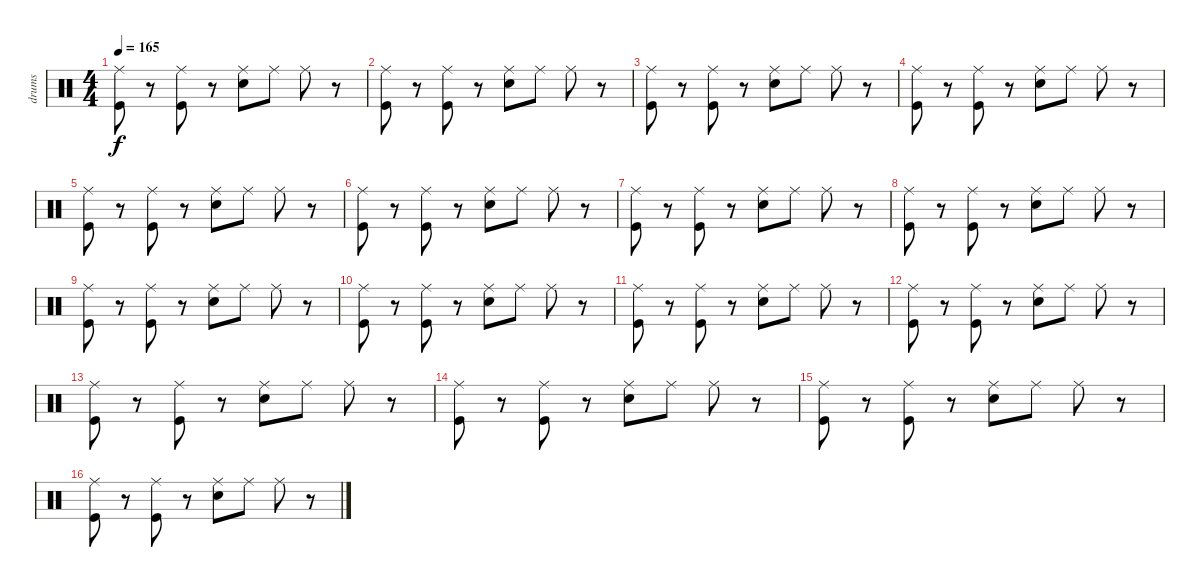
\track ("drums" "drums") {instrument percussion}
\staff {score}
\articulation defaults
\ts (4 4)
\tempo 165
\clef neutral
\ks c
("Kick (hit)" "Ride (middle)").8{dy f} r.8 ("Kick (hit)" "Ride (middle)").8 r.8 ("Snare (hit) 2" "Ride (middle)").8 "Ride (middle)".8 "Ride (middle)".8 r.8 |
("Kick (hit)" "Ride (middle)").8 r.8 ("Kick (hit)" "Ride (middle)").8 r.8 ("Snare (hit) 2" "Ride (middle)").8 "Ride (middle)".8 "Ride (middle)".8 r.8 |
("Kick (hit)" "Ride (middle)").8 r.8 ("Kick (hit)" "Ride (middle)").8 r.8 ("Snare (hit) 2" "Ride (middle)").8 "Ride (middle)".8 "Ride (middle)".8 r.8 |
("Kick (hit)" "Ride (middle)").8 r.8 ("Kick (hit)" "Ride (middle)").8 r.8 ("Snare (hit) 2" "Ride (middle)").8 "Ride (middle)".8 "Ride (middle)".8 r.8 |
("Kick (hit)" "Ride (middle)").8 r.8 ("Kick (hit)" "Ride (middle)").8 r.8 ("Snare (hit) 2" "Ride (middle)").8 "Ride (middle)".8 "Ride (middle)".8 r.8 |
("Kick (hit)" "Ride (middle)").8 r.8 ("Kick (hit)" "Ride (middle)").8 r.8 ("Snare (hit) 2" "Ride (middle)").8 "Ride (middle)".8 "Ride (middle)".8 r.8 |
("Kick (hit)" "Ride (middle)").8 r.8 ("Kick (hit)" "Ride (middle)").8 r.8 ("Snare (hit) 2" "Ride (middle)").8 "Ride (middle)".8 "Ride (middle)".8 r.8 |
("Kick (hit)" "Ride (middle)").8 r.8 ("Kick (hit)" "Ride (middle)").8 r.8 ("Snare (hit) 2" "Ride (middle)").8 "Ride (middle)".8 "Ride (middle)".8 r.8 |
("Kick (hit)" "Ride (middle)").8 r.8 ("Kick (hit)" "Ride (middle)").8 r.8 ("Snare (hit) 2" "Ride (middle)").8 "Ride (middle)".8 "Ride (middle)".8 r.8 |
("Kick (hit)" "Ride (middle)").8 r.8 ("Kick (hit)" "Ride (middle)").8 r.8 ("Snare (hit) 2" "Ride (middle)").8 "Ride (middle)".8 "Ride (middle)".8 r.8 |
("Kick (hit)" "Ride (middle)").8 r.8 ("Kick (hit)" "Ride (middle)").8 r.8 ("Snare (hit) 2" "Ride (middle)").8 "Ride (middle)".8 "Ride (middle)".8 r.8 |
("Kick (hit)" "Ride (middle)").8 r.8 ("Kick (hit)" "Ride (middle)").8 r.8 ("Snare (hit) 2" "Ride (middle)").8 "Ride (middle)".8 "Ride (middle)".8 r.8 |
("Kick (hit)" "Ride (middle)").8 r.8 ("Kick (hit)" "Ride (middle)").8 r.8 ("Snare (hit) 2" "Ride (middle)").8 "Ride (middle)".8 "Ride (middle)".8 r.8 |
("Kick (hit)" "Ride (middle)").8 r.8 ("Kick (hit)" "Ride (middle)").8 r.8 ("Snare (hit) 2" "Ride (middle)").8 "Ride (middle)".8 "Ride (middle)".8 r.8 |
("Kick (hit)" "Ride (middle)").8 r.8 ("Kick (hit)" "Ride (middle)").8 r.8 ("Snare (hit) 2" "Ride (middle)").8 "Ride (middle)".8 "Ride (middle)".8 r.8 |
("Kick (hit)" "Ride (middle)").8 r.8 ("Kick (hit)" "Ride (middle)").8 r.8 ("Snare (hit) 2" "Ride (middle)").8 "Ride (middle)".8 "Ride (middle)".8 r.8
